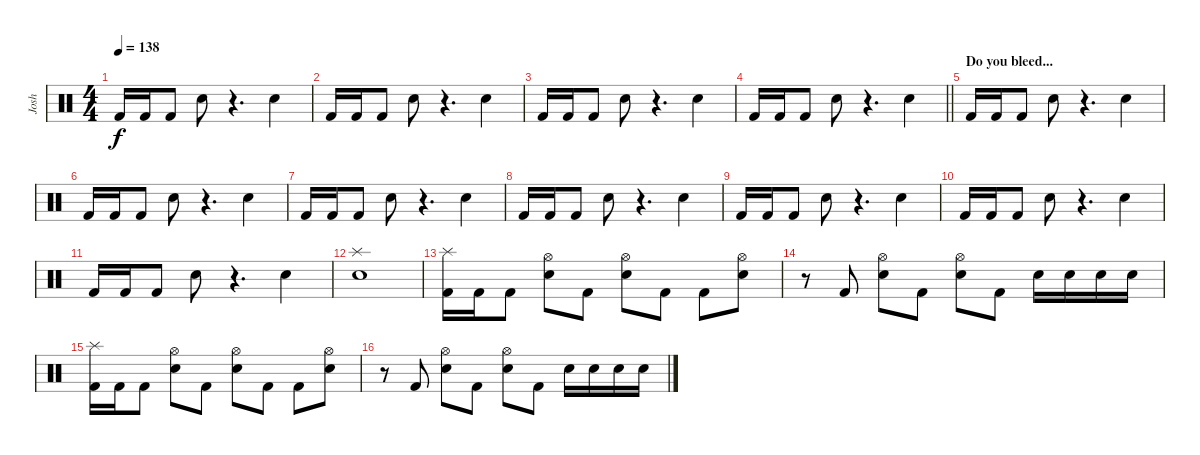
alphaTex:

\track ("Josh" "Josh") {instrument percussion}
\staff {score}
\articulation defaults
\ts (4 4)
\tempo 138
\clef neutral
\ks c "Kick (hit) 2".16{dy f} "Kick (hit) 2".16 "Kick (hit) 2".8 "Electric Snare (hit)".8
r.4{d} "Electric Snare (hit)".4 |
"Kick (hit) 2".16 "Kick (hit) 2".16 "Kick (hit) 2".8 "Electric Snare (hit)".8 r.4{d} "Electric Snare (hit)".4 |
"Kick (hit) 2".16 "Kick (hit) 2".16 "Kick (hit) 2".8 "Electric Snare (hit)".8 r.4{d} "Electric Snare (hit)".4 |
\barLineRight lightlight "Kick (hit) 2".16 "Kick (hit) 2".16 "Kick (hit) 2".8 "Electric Snare (hit)".8
r.4{d} "Electric Snare (hit)".4 |
\section ("" "Do you bleed...")
"Kick (hit) 2".16 "Kick (hit) 2".16 "Kick (hit) 2".8 "Electric Snare (hit)".8 r.4{d} "Electric Snare (hit)".4 |
"Kick (hit) 2".16 "Kick (hit) 2".16 "Kick (hit) 2".8 "Electric Snare (hit)".8 r.4{d} "Electric Snare (hit)".4 |
"Kick (hit) 2".16 "Kick (hit) 2".16 "Kick (hit) 2".8 "Electric Snare (hit)".8 r.4{d} "Electric Snare (hit)".4 |
"Kick (hit) 2".16 "Kick (hit) 2".16 "Kick (hit) 2".8 "Electric Snare (hit)".8 r.4{d} "Electric Snare (hit)".4 |
"Kick (hit) 2".16 "Kick (hit) 2".16 "Kick (hit) 2".8 "Electric Snare (hit)".8 r.4{d} "Electric Snare (hit)".4 |
"Kick (hit) 2".16 "Kick (hit) 2".16 "Kick (hit) 2".8 "Electric Snare (hit)".8 r.4{d} "Electric Snare (hit)".4 |
"Kick (hit) 2".16 "Kick (hit) 2".16 "Kick (hit) 2".8 "Electric Snare (hit)".8 r.4{d} "Electric Snare (hit)".4 |
("Splash (hit)" "Electric Snare (hit)").1 |
("Splash (hit)" "Kick (hit) 2").16 "Kick (hit) 2".16 "Kick (hit) 2".8 ("Hi-Hat (open)" "Electric Snare (hit)").8 "Kick (hit) 2".8 ("Hi-Hat (open)" "Electric Snare (hit)").8 "Kick (hit) 2".8 "Kick (hit) 2".8 ("Hi-Hat (open)" "Electric Snare (hit)").8 |
r.8 "Kick (hit) 2".8 ("Hi-Hat (open)" "Electric Snare (hit)").8 "Kick (hit) 2".8 ("Hi-Hat (open)" "Electric Snare (hit)").8 "Kick (hit) 2".8 "Electric Snare (hit)".16 "Electric Snare (hit)".16 "Electric Snare (hit)".16 "Electric Snare (hit)".16 |
("Splash (hit)" "Kick (hit) 2").16 "Kick (hit) 2".16 "Kick (hit) 2".8 ("Hi-Hat (open)" "Electric Snare (hit)").8 "Kick (hit) 2".8 ("Hi-Hat (open)" "Electric Snare (hit)").8 "Kick (hit) 2".8 "Kick (hit) 2".8 ("Hi-Hat (open)" "Electric Snare (hit)").8 |
r.8 "Kick (hit) 2".8 ("Hi-Hat (open)" "Electric Snare (hit)").8 "Kick (hit) 2".8 ("Hi-Hat (open)" "Electric Snare (hit)").8 "Kick (hit) 2".8 "Electric Snare (hit)".16 "Electric Snare (hit)".16 "Electric Snare (hit)".16 "Electric Snare (hit)".16
